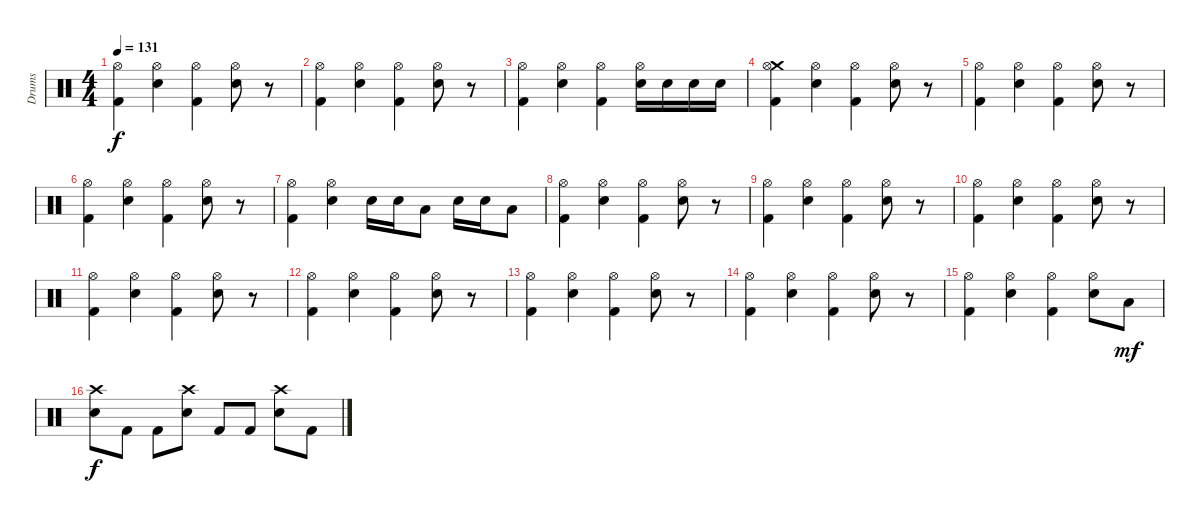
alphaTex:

\track ("Drums" "Drums") {instrument percussion}
\staff {score}
\articulation defaults
\ts (4 4)
\tempo 131
\clef neutral
\ks c
("Hi-Hat (open)" "Kick (hit) 2").4{dy f} ("Hi-Hat (open)" "Electric Snare (hit)").4 ("Hi-Hat (open)" "Kick (hit) 2").4 ("Hi-Hat (open)" "Electric Snare (hit)").8 r.8 |
("Hi-Hat (open)" "Kick (hit) 2").4 ("Hi-Hat (open)" "Electric Snare (hit)").4 ("Hi-Hat (open)" "Kick (hit) 2").4 ("Hi-Hat (open)" "Electric Snare (hit)").8 r.8 |
("Hi-Hat (open)" "Kick (hit) 2").4 ("Hi-Hat (open)" "Electric Snare (hit)").4 ("Hi-Hat (open)" "Kick (hit) 2").4 ("Hi-Hat (open)" "Electric Snare (hit)").16 "Electric Snare (hit)".16 "Electric Snare (hit)".16 "Electric Snare (hit)".16 |
("Crash medium (hit)" "Hi-Hat (open)" "Kick (hit) 2").4 ("Hi-Hat (open)" "Electric Snare (hit)").4 ("Hi-Hat (open)" "Kick (hit) 2").4 ("Hi-Hat (open)" "Electric Snare (hit)").8 r.8 |
("Hi-Hat (open)" "Kick (hit) 2").4 ("Hi-Hat (open)" "Electric Snare (hit)").4 ("Hi-Hat (open)" "Kick (hit) 2").4 ("Hi-Hat (open)" "Electric Snare (hit)").8 r.8 |
("Hi-Hat (open)" "Kick (hit) 2").4 ("Hi-Hat (open)" "Electric Snare (hit)").4 ("Hi-Hat (open)" "Kick (hit) 2").4 ("Hi-Hat (open)" "Electric Snare (hit)").8 r.8 |
("Hi-Hat (open)" "Kick (hit) 2").4 ("Hi-Hat (open)" "Electric Snare (hit)").4 "Electric Snare (hit)".16 "Electric Snare (hit)".16 "Low Tom (hit)".8 "Electric Snare (hit)".16 "Electric Snare (hit)".16 "Low Tom (hit)".8 |
("Hi-Hat (open)" "Kick (hit) 2").4 ("Hi-Hat (open)" "Electric Snare (hit)").4 ("Hi-Hat (open)" "Kick (hit) 2").4 ("Hi-Hat (open)" "Electric Snare (hit)").8 r.8 |
("Hi-Hat (open)" "Kick (hit) 2").4 ("Hi-Hat (open)" "Electric Snare (hit)").4 ("Hi-Hat (open)" "Kick (hit) 2").4 ("Hi-Hat (open)" "Electric Snare (hit)").8 r.8 |
("Hi-Hat (open)" "Kick (hit) 2").4 ("Hi-Hat (open)" "Electric Snare (hit)").4 ("Hi-Hat (open)" "Kick (hit) 2").4 ("Hi-Hat (open)" "Electric Snare (hit)").8 r.8 |
("Hi-Hat (open)" "Kick (hit) 2").4 ("Hi-Hat (open)" "Electric Snare (hit)").4 ("Hi-Hat (open)" "Kick (hit) 2").4 ("Hi-Hat (open)" "Electric Snare (hit)").8 r.8 |
("Hi-Hat (open)" "Kick (hit) 2").4 ("Hi-Hat (open)" "Electric Snare (hit)").4 ("Hi-Hat (open)" "Kick (hit) 2").4 ("Hi-Hat (open)" "Electric Snare (hit)").8 r.8 |
("Hi-Hat (open)" "Kick (hit) 2").4 ("Hi-Hat (open)" "Electric Snare (hit)").4 ("Hi-Hat (open)" "Kick (hit) 2").4 ("Hi-Hat (open)" "Electric Snare (hit)").8 r.8 |
("Hi-Hat (open)" "Kick (hit) 2").4 ("Hi-Hat (open)" "Electric Snare (hit)").4 ("Hi-Hat (open)" "Kick (hit) 2").4 ("Hi-Hat (open)" "Electric Snare (hit)").8 r.8 |
("Hi-Hat (open)" "Kick (hit) 2").4 ("Hi-Hat (open)" "Electric Snare (hit)").4 ("Hi-Hat (open)" "Kick (hit) 2").4 ("Hi-Hat (open)" "Electric Snare (hit)").8 "Low Tom (hit)".8{dy mf} |
("Crash high (hit)" "Electric Snare (hit)").8{dy f} "Kick (hit) 2".8 "Kick (hit) 2".8 ("Crash high (hit)" "Electric Snare (hit)").8 "Kick (hit) 2".8 "Kick (hit) 2".8 ("Crash high (hit)" "Electric Snare (hit)").8 "Kick (hit) 2".8
